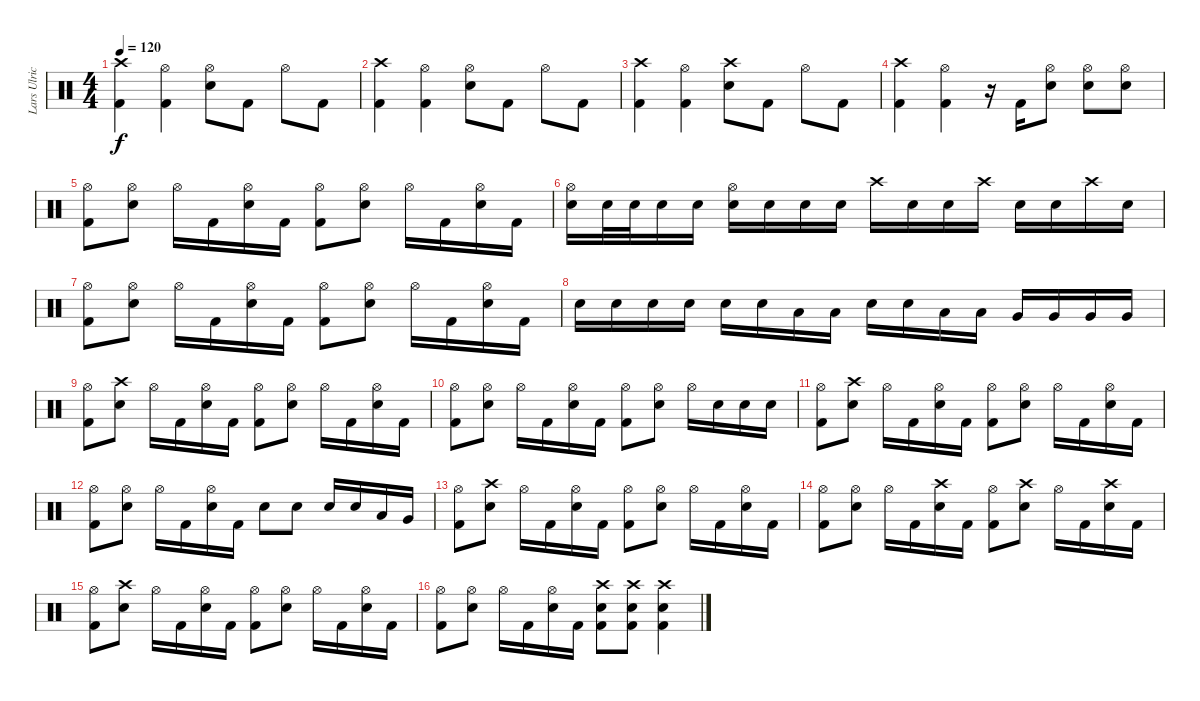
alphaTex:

\track ("Lars Ulrich" "Lars Ulric") {instrument percussion}
\staff {score}
\articulation defaults
\ts (4 4)
\tempo 120
\clef neutral
\ks c
("Crash high (hit)" "Kick (hit) 2").4{dy f} ("Hi-Hat (open)" "Kick (hit) 2").4 ("Hi-Hat (open)" "Electric Snare (hit)").8 "Kick (hit) 2".8 "Hi-Hat (open)".8 "Kick (hit) 2".8 |
("Crash high (hit)" "Kick (hit) 2").4 ("Hi-Hat (open)" "Kick (hit) 2").4 ("Hi-Hat (open)" "Electric Snare (hit)").8 "Kick (hit) 2".8 "Hi-Hat (open)".8 "Kick (hit) 2".8 |
("Crash high (hit)" "Kick (hit) 2").4 ("Hi-Hat (open)" "Kick (hit) 2").4 ("Crash high (hit)" "Electric Snare (hit)").8 "Kick (hit) 2".8 "Hi-Hat (open)".8 "Kick (hit) 2".8 |
("Crash high (hit)" "Kick (hit) 2").4 ("Hi-Hat (open)" "Kick (hit) 2").4 r.16 "Kick (hit) 2".16 ("Hi-Hat (open)" "Electric Snare (hit)").8 ("Hi-Hat (open)" "Electric Snare (hit)").8 ("Hi-Hat (open)" "Electric Snare (hit)").8 |
("Hi-Hat (open)" "Kick (hit) 2").8 ("Hi-Hat (open)" "Electric Snare (hit)").8 "Hi-Hat (open)".16 "Kick (hit) 2".16 ("Hi-Hat (open)" "Electric Snare (hit)").16 "Kick (hit) 2".16 ("Hi-Hat (open)" "Kick (hit) 2").8 ("Hi-Hat (open)" "Electric Snare (hit)").8 "Hi-Hat (open)".16 "Kick (hit) 2".16 ("Hi-Hat (open)" "Electric Snare (hit)").16 "Kick (hit) 2".16 |
("Electric Snare (hit)" "Hi-Hat (open)").16 "Electric Snare (hit)".32 "Electric Snare (hit)".32 "Electric Snare (hit)".16 "Electric Snare (hit)".16 ("Electric Snare (hit)" "Hi-Hat (open)").16 "Electric Snare (hit)".16 "Electric Snare (hit)".16 "Electric Snare (hit)".16 "Crash high (hit)".16 "Electric Snare (hit)".16 "Electric Snare (hit)".16 "Crash high (hit)".16 "Electric Snare (hit)".16 "Electric Snare (hit)".16 "Crash high (hit)".16 "Electric Snare (hit)".16 |
("Hi-Hat (open)" "Kick (hit) 2").8 ("Hi-Hat (open)" "Electric Snare (hit)").8 "Hi-Hat (open)".16 "Kick (hit) 2".16 ("Hi-Hat (open)" "Electric Snare (hit)").16 "Kick (hit) 2".16 ("Hi-Hat (open)" "Kick (hit) 2").8 ("Hi-Hat (open)" "Electric Snare (hit)").8 "Hi-Hat (open)".16 "Kick (hit) 2".16 ("Hi-Hat (open)" "Electric Snare (hit)").16 "Kick (hit) 2".16 |
"Electric Snare (hit)".16 "Electric Snare (hit)".16 "Electric Snare (hit)".16 "Electric Snare (hit)".16 "Electric Snare (hit)".16 "Electric Snare (hit)".16 "Low Tom (hit)".16 "Low Tom (hit)".16 "Electric Snare (hit)".16 "Electric Snare (hit)".16 "Low Tom (hit)".16 "Low Tom (hit)".16 "Very Low Tom (hit)".16 "Very Low Tom (hit)".16 "Very Low Tom (hit)".16 "Very Low Tom (hit)".16 |
("Hi-Hat (open)" "Kick (hit) 2").8 ("Crash high (hit)" "Electric Snare (hit)").8 "Hi-Hat (open)".16 "Kick (hit) 2".16 ("Hi-Hat (open)" "Electric Snare (hit)").16 "Kick (hit) 2".16 ("Hi-Hat (open)" "Kick (hit) 2").8 ("Hi-Hat (open)" "Electric Snare (hit)").8 "Hi-Hat (open)".16 "Kick (hit) 2".16 ("Hi-Hat (open)" "Electric Snare (hit)").16 "Kick (hit) 2".16 |
("Hi-Hat (open)" "Kick (hit) 2").8 ("Hi-Hat (open)" "Electric Snare (hit)").8 "Hi-Hat (open)".16 "Kick (hit) 2".16 ("Hi-Hat (open)" "Electric Snare (hit)").16 "Kick (hit) 2".16 ("Hi-Hat (open)" "Kick (hit) 2").8 ("Hi-Hat (open)" "Electric Snare (hit)").8 "Hi-Hat (open)".16 "Electric Snare (hit)".16 "Electric Snare (hit)".16 "Electric Snare (hit)".16 |
("Hi-Hat (open)" "Kick (hit) 2").8 ("Crash high (hit)" "Electric Snare (hit)").8 "Hi-Hat (open)".16 "Kick (hit) 2".16 ("Hi-Hat (open)" "Electric Snare (hit)").16 "Kick (hit) 2".16 ("Hi-Hat (open)" "Kick (hit) 2").8 ("Hi-Hat (open)" "Electric Snare (hit)").8 "Hi-Hat (open)".16 "Kick (hit) 2".16 ("Hi-Hat (open)" "Electric Snare (hit)").16 "Kick (hit) 2".16 |
("Hi-Hat (open)" "Kick (hit) 2").8 ("Hi-Hat (open)" "Electric Snare (hit)").8 "Hi-Hat (open)".16 "Kick (hit) 2".16 ("Hi-Hat (open)" "Electric Snare (hit)").16 "Kick (hit) 2".16 "Electric Snare (hit)".8 "Electric Snare (hit)".8 "Electric Snare (hit)".16 "Electric Snare (hit)".16 "Low Tom (hit)".16 "Very Low Tom (hit)".16 |
("Hi-Hat (open)" "Kick (hit) 2").8 ("Crash high (hit)" "Electric Snare (hit)").8 "Hi-Hat (open)".16 "Kick (hit) 2".16 ("Hi-Hat (open)" "Electric Snare (hit)").16 "Kick (hit) 2".16 ("Hi-Hat (open)" "Kick (hit) 2").8 ("Hi-Hat (open)" "Electric Snare (hit)").8 "Hi-Hat (open)".16 "Kick (hit) 2".16 ("Hi-Hat (open)" "Electric Snare (hit)").16 "Kick (hit) 2".16 |
("Hi-Hat (open)" "Kick (hit) 2").8 ("Hi-Hat (open)" "Electric Snare (hit)").8 "Hi-Hat (open)".16 "Kick (hit) 2".16 ("Crash high (hit)" "Electric Snare (hit)").16 "Kick (hit) 2".16 ("Hi-Hat (open)" "Kick (hit) 2").8 ("Crash high (hit)" "Electric Snare (hit)").8 "Hi-Hat (open)".16 "Kick (hit) 2".16 ("Crash high (hit)" "Electric Snare (hit)").16 "Kick (hit) 2".16 |
("Hi-Hat (open)" "Kick (hit) 2").8 ("Crash high (hit)" "Electric Snare (hit)").8 "Hi-Hat (open)".16 "Kick (hit) 2".16 ("Hi-Hat (open)" "Electric Snare (hit)").16 "Kick (hit) 2".16 ("Hi-Hat (open)" "Kick (hit) 2").8 ("Hi-Hat (open)" "Electric Snare (hit)").8 "Hi-Hat (open)".16 "Kick (hit) 2".16 ("Hi-Hat (open)" "Electric Snare (hit)").16 "Kick (hit) 2".16 |
("Hi-Hat (open)" "Kick (hit) 2").8 ("Hi-Hat (open)" "Electric Snare (hit)").8 "Hi-Hat (open)".16 "Kick (hit) 2".16 ("Hi-Hat (open)" "Electric Snare (hit)").16 "Kick (hit) 2".16 ("Electric Snare (hit)" "Crash high (hit)" "Kick (hit) 2").8 ("Electric Snare (hit)" "Crash high (hit)" "Kick (hit) 2").8 ("Electric Snare (hit)" "Crash high (hit)" "Kick (hit) 2").4
